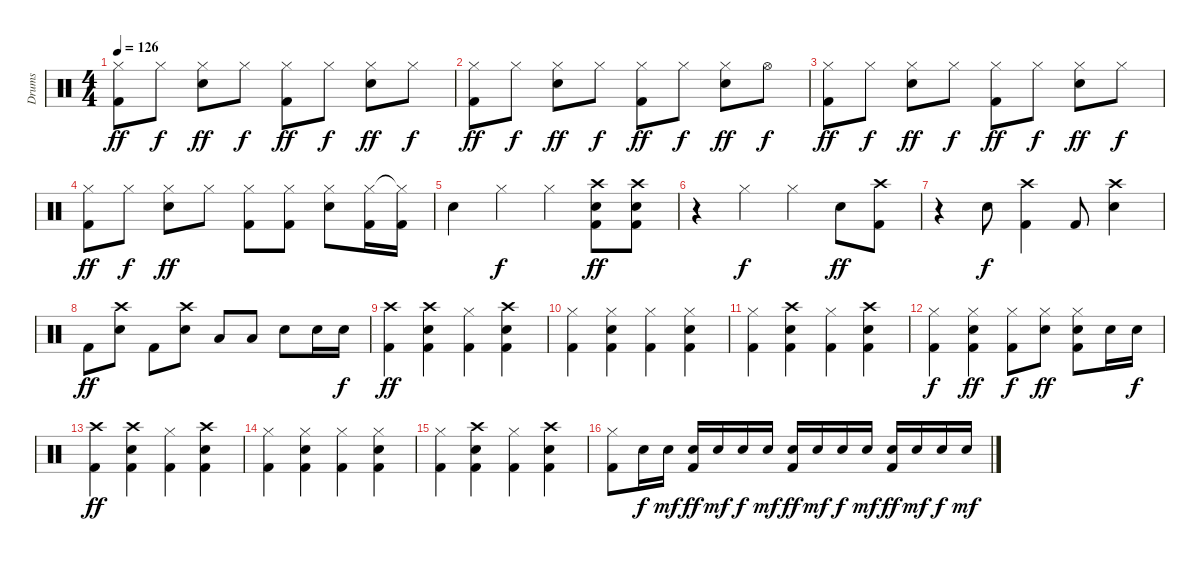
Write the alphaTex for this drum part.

\track ("Drums" "Drums") {instrument percussion}
\staff {score}
\articulation defaults
\ts (4 4)
\tempo 126
\clef neutral
\ks c
("Hi-Hat (closed)" "Kick (hit) 2").8{dy ff} "Hi-Hat (closed)".8{dy f} ("Hi-Hat (closed)" "Snare (hit) 2").8{dy ff} "Hi-Hat (closed)".8{dy f} ("Hi-Hat (closed)" "Kick (hit) 2").8{dy ff} "Hi-Hat (closed)".8{dy f} ("Hi-Hat (closed)" "Snare (hit) 2").8{dy ff} "Hi-Hat (closed)".8{dy f} |
("Hi-Hat (closed)" "Kick (hit) 2").8{dy ff} "Hi-Hat (closed)".8{dy f} ("Hi-Hat (closed)" "Snare (hit) 2").8{dy ff} "Hi-Hat (closed)".8{dy f} ("Hi-Hat (closed)" "Kick (hit) 2").8{dy ff} "Hi-Hat (closed)".8{dy f} ("Hi-Hat (closed)" "Snare (hit) 2").8{dy ff} "Hi-Hat (open)".8{dy f} |
("Hi-Hat (closed)" "Kick (hit) 2").8{dy ff} "Hi-Hat (closed)".8{dy f} ("Hi-Hat (closed)" "Snare (hit) 2").8{dy ff} "Hi-Hat (closed)".8{dy f} ("Hi-Hat (closed)" "Kick (hit) 2").8{dy ff} "Hi-Hat (closed)".8{dy f} ("Hi-Hat (closed)" "Snare (hit) 2").8{dy ff} "Hi-Hat (closed)".8{dy f} |
("Hi-Hat (closed)" "Kick (hit) 2").8{dy ff} "Hi-Hat (closed)".8{dy f} ("Hi-Hat (closed)" "Snare (hit) 2").8{dy ff} "Hi-Hat (closed)".8 ("Hi-Hat (closed)" "Kick (hit) 2").8 ("Hi-Hat (closed)" "Kick (hit) 2").8 ("Hi-Hat (closed)" "Snare (hit) 2").8 ("Hi-Hat (closed)" "Kick (hit) 2").16 ("Hi-Hat (closed)"{t} "Kick (hit) 2").16 |
"Snare (hit) 2".4 "Hi-Hat (closed)".4{dy f} "Hi-Hat (closed)".4 ("Crash high (hit)" "Snare (hit) 2" "Kick (hit) 2").8{dy ff} ("Crash high (hit)" "Snare (hit) 2" "Kick (hit) 2").8 |
r.4 "Hi-Hat (closed)".4{dy f} "Hi-Hat (closed)".4 "Snare (hit) 2".8{dy ff} ("Crash high (hit)" "Kick (hit) 2").8 |
r.4 "Snare (hit) 2".8{dy f} ("Crash high (hit)" "Kick (hit) 2").4 "Kick (hit) 2".8 ("Crash high (hit)" "Snare (hit) 2").4 |
"Kick (hit) 2".8{dy ff} ("Crash high (hit)" "Snare (hit) 2").8 "Kick (hit) 2".8 ("Crash high (hit)" "Snare (hit) 2").8 "Low Tom (hit)".8 "Low Floor Tom (hit)".8 "Snare (hit) 2".8 "Snare (hit) 2".16 "Snare (hit) 2".16{dy f} |
("Crash high (hit)" "Kick (hit) 2").4{dy ff} ("Crash high (hit)" "Snare (hit) 2" "Kick (hit) 2").4 ("Hi-Hat (closed)" "Kick (hit) 2").4 ("Crash high (hit)" "Snare (hit) 2" "Kick (hit) 2").4 |
("Hi-Hat (closed)" "Kick (hit) 2").4 ("Hi-Hat (closed)" "Snare (hit) 2" "Kick (hit) 2").4 ("Hi-Hat (closed)" "Kick (hit) 2").4 ("Hi-Hat (closed)" "Snare (hit) 2" "Kick (hit) 2").4 |
("Hi-Hat (closed)" "Kick (hit) 2").4 ("Crash high (hit)" "Snare (hit) 2" "Kick (hit) 2").4 ("Hi-Hat (closed)" "Kick (hit) 2").4 ("Crash high (hit)" "Snare (hit) 2" "Kick (hit) 2").4 |
("Hi-Hat (closed)" "Kick (hit) 2").4{dy f} ("Hi-Hat (closed)" "Snare (hit) 2" "Kick (hit) 2").4{dy ff} ("Hi-Hat (closed)" "Kick (hit) 2").8{dy f} ("Hi-Hat (closed)" "Snare (hit) 2").8{dy ff} ("Hi-Hat (closed)" "Snare (hit) 2" "Kick (hit) 2").8 "Snare (hit) 2".16 "Snare (hit) 2".16{dy f} |
("Crash high (hit)" "Kick (hit) 2").4{dy ff} ("Crash high (hit)" "Snare (hit) 2" "Kick (hit) 2").4 ("Hi-Hat (closed)" "Kick (hit) 2").4 ("Crash high (hit)" "Snare (hit) 2" "Kick (hit) 2").4 |
("Hi-Hat (closed)" "Kick (hit) 2").4 ("Hi-Hat (closed)" "Snare (hit) 2" "Kick (hit) 2").4 ("Hi-Hat (closed)" "Kick (hit) 2").4 ("Hi-Hat (closed)" "Snare (hit) 2" "Kick (hit) 2").4 |
("Hi-Hat (closed)" "Kick (hit) 2").4 ("Crash high (hit)" "Snare (hit) 2" "Kick (hit) 2").4 ("Hi-Hat (closed)" "Kick (hit) 2").4 ("Crash high (hit)" "Snare (hit) 2" "Kick (hit) 2").4 |
("Hi-Hat (closed)" "Kick (hit) 2").8 "Snare (hit) 2".16{dy f} "Snare (hit) 2".16{dy mf} ("Snare (hit) 2" "Kick (hit) 2").16{dy ff} "Snare (hit) 2".16{dy mf} "Snare (hit) 2".16{dy f} "Snare (hit) 2".16{dy mf} ("Snare (hit) 2" "Kick (hit) 2").16{dy ff} "Snare (hit) 2".16{dy mf} "Snare (hit) 2".16{dy f} "Snare (hit) 2".16{dy mf} ("Snare (hit) 2" "Kick (hit) 2").16{dy ff} "Snare (hit) 2".16{dy mf} "Snare (hit) 2".16{dy f} "Snare (hit) 2".16{dy mf}
